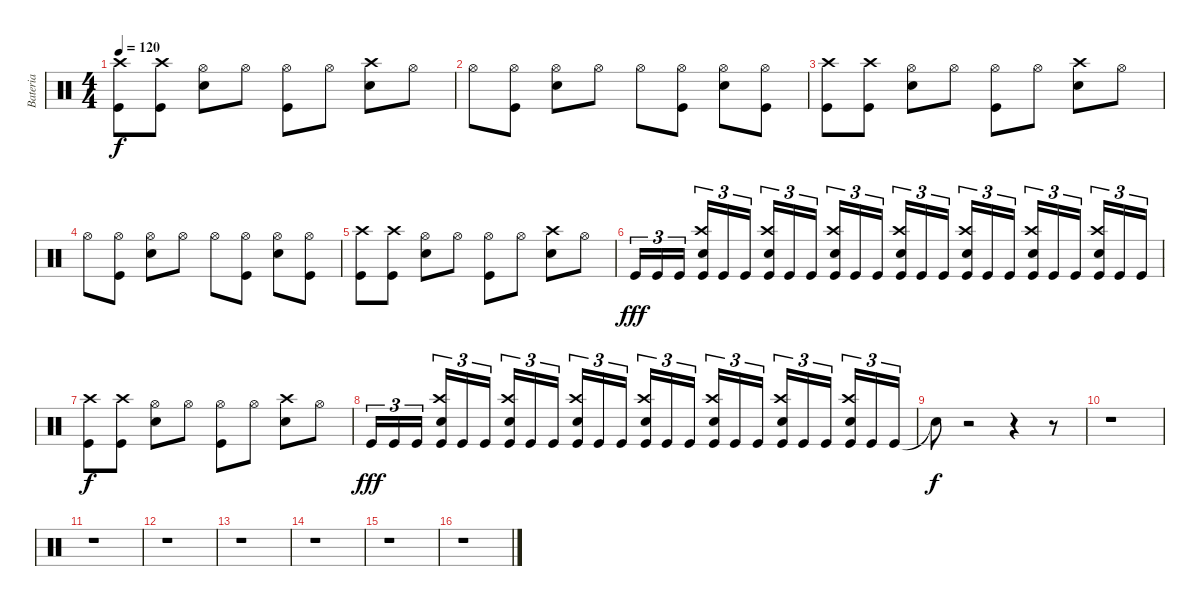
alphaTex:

\track ("Bateria" "Bateria") {instrument percussion}
\staff {score}
\articulation defaults
\ts (4 4)
\tempo 120
\clef neutral
\ks c
("Kick (hit)" "Crash high (hit)").8{dy f} ("Kick (hit)" "Crash high (hit)").8 ("Electric Snare (hit)" "Hi-Hat (open)").8 "Hi-Hat (open)".8 ("Kick (hit)" "Hi-Hat (open)").8 "Hi-Hat (open)".8 ("Electric Snare (hit)" "Crash high (hit)").8 "Hi-Hat (open)".8 |
"Hi-Hat (open)".8 ("Kick (hit)" "Hi-Hat (open)").8 ("Electric Snare (hit)" "Hi-Hat (open)").8 "Hi-Hat (open)".8 "Hi-Hat (open)".8 ("Kick (hit)" "Hi-Hat (open)").8 ("Electric Snare (hit)" "Hi-Hat (open)").8 ("Kick (hit)" "Hi-Hat (open)").8 |
("Kick (hit)" "Crash high (hit)").8 ("Kick (hit)" "Crash high (hit)").8 ("Electric Snare (hit)" "Hi-Hat (open)").8 "Hi-Hat (open)".8 ("Kick (hit)" "Hi-Hat (open)").8 "Hi-Hat (open)".8 ("Electric Snare (hit)" "Crash high (hit)").8 "Hi-Hat (open)".8 |
"Hi-Hat (open)".8 ("Kick (hit)" "Hi-Hat (open)").8 ("Electric Snare (hit)" "Hi-Hat (open)").8 "Hi-Hat (open)".8 "Hi-Hat (open)".8 ("Kick (hit)" "Hi-Hat (open)").8 ("Electric Snare (hit)" "Hi-Hat (open)").8 ("Kick (hit)" "Hi-Hat (open)").8 |
("Kick (hit)" "Crash high (hit)").8 ("Kick (hit)" "Crash high (hit)").8 ("Electric Snare (hit)" "Hi-Hat (open)").8 "Hi-Hat (open)".8 ("Kick (hit)" "Hi-Hat (open)").8 "Hi-Hat (open)".8 ("Electric Snare (hit)" "Crash high (hit)").8 "Hi-Hat (open)".8 |
"Kick (hit)".16{tu (3 2) dy fff} "Kick (hit)".16{tu (3 2)} "Kick (hit)".16{tu (3 2)} ("Kick (hit)" "Electric Snare (hit)" "Crash high (hit)").16{tu (3 2)} "Kick (hit)".16{tu (3 2)} "Kick (hit)".16{tu (3 2)} ("Kick (hit)" "Electric Snare (hit)" "Crash high (hit)").16{tu (3 2)} "Kick (hit)".16{tu (3 2)} "Kick (hit)".16{tu (3 2)} ("Kick (hit)" "Electric Snare (hit)" "Crash high (hit)").16{tu (3 2)} "Kick (hit)".16{tu (3 2)} "Kick (hit)".16{tu (3 2)} ("Kick (hit)" "Electric Snare (hit)" "Crash high (hit)").16{tu (3 2)} "Kick (hit)".16{tu (3 2)} "Kick (hit)".16{tu (3 2)} ("Kick (hit)" "Electric Snare (hit)" "Crash high (hit)").16{tu (3 2)} "Kick (hit)".16{tu (3 2)} "Kick (hit)".16{tu (3 2)} ("Kick (hit)" "Electric Snare (hit)" "Crash high (hit)").16{tu (3 2)} "Kick (hit)".16{tu (3 2)} "Kick (hit)".16{tu (3 2)} ("Kick (hit)" "Electric Snare (hit)" "Crash high (hit)").16{tu (3 2)} "Kick (hit)".16{tu (3 2)} "Kick (hit)".16{tu (3 2)} |
("Kick (hit)" "Crash high (hit)").8{dy f} ("Kick (hit)" "Crash high (hit)").8 ("Electric Snare (hit)" "Hi-Hat (open)").8 "Hi-Hat (open)".8 ("Kick (hit)" "Hi-Hat (open)").8 "Hi-Hat (open)".8 ("Electric Snare (hit)" "Crash high (hit)").8 "Hi-Hat (open)".8 |
"Kick (hit)".16{tu (3 2) dy fff} "Kick (hit)".16{tu (3 2)} "Kick (hit)".16{tu (3 2)} ("Kick (hit)" "Electric Snare (hit)" "Crash high (hit)").16{tu (3 2)} "Kick (hit)".16{tu (3 2)} "Kick (hit)".16{tu (3 2)} ("Kick (hit)" "Electric Snare (hit)" "Crash high (hit)").16{tu (3 2)} "Kick (hit)".16{tu (3 2)} "Kick (hit)".16{tu (3 2)} ("Kick (hit)" "Electric Snare (hit)" "Crash high (hit)").16{tu (3 2)} "Kick (hit)".16{tu (3 2)} "Kick (hit)".16{tu (3 2)} ("Kick (hit)" "Electric Snare (hit)" "Crash high (hit)").16{tu (3 2)} "Kick (hit)".16{tu (3 2)} "Kick (hit)".16{tu (3 2)} ("Kick (hit)" "Electric Snare (hit)" "Crash high (hit)").16{tu (3 2)} "Kick (hit)".16{tu (3 2)} "Kick (hit)".16{tu (3 2)} ("Kick (hit)" "Electric Snare (hit)" "Crash high (hit)").16{tu (3 2)} "Kick (hit)".16{tu (3 2)} "Kick (hit)".16{tu (3 2)} ("Kick (hit)" "Electric Snare (hit)" "Crash high (hit)").16{tu (3 2)} "Kick (hit)".16{tu (3 2)} "Kick (hit)".16{tu (3 2)} |
"Snare (hit)"{t}.8{dy f} r.2 r.4 r.8 |
r.1 |
r.1 |
r.1 |
r.1 |
r.1 |
r.1 |
r.1
